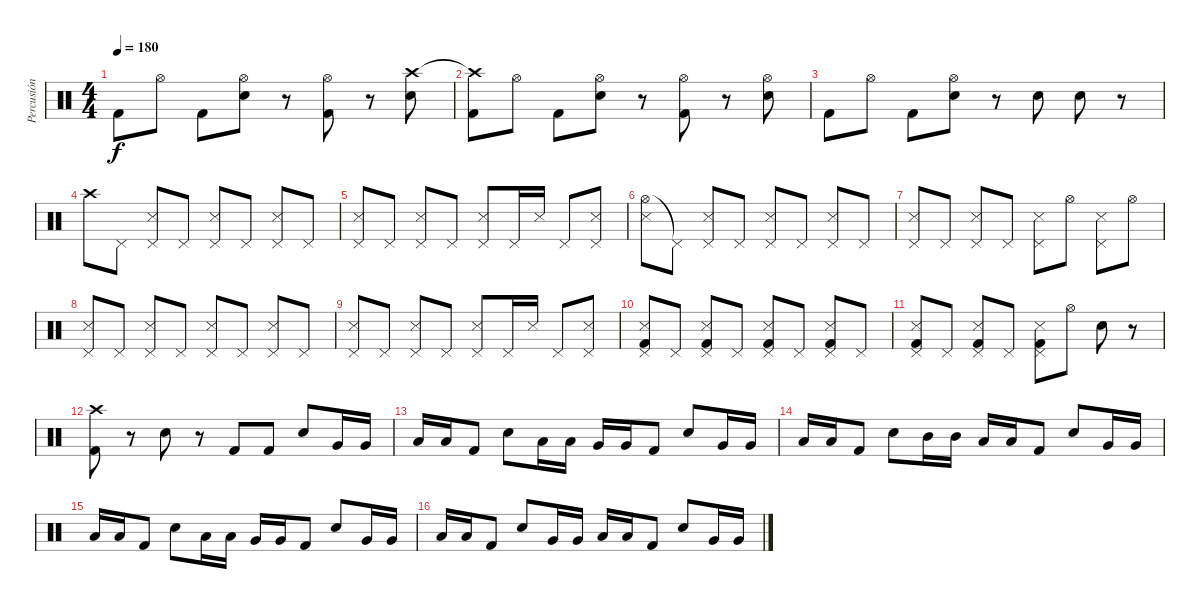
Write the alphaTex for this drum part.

\track ("Percusión" "Percusión") {instrument percussion}
\staff {score}
\articulation defaults
\ts (4 4)
\tempo 180
\clef neutral
\ks c "Kick (hit) 2".8{dy f} "Hi-Hat (open)".8 "Kick (hit) 2".8
("Hi-Hat (open)" "Electric Snare (hit)").8 r.8 ("Hi-Hat (open)" "Kick (hit) 2").8 r.8 ("Crash high (hit)" "Electric Snare (hit)").8 |
("Crash high (hit)"{t} "Kick (hit) 2").8 "Hi-Hat (open)".8 "Kick (hit) 2".8 ("Hi-Hat (open)" "Electric Snare (hit)").8 r.8 ("Hi-Hat (open)" "Kick (hit) 2").8 r.8 ("Hi-Hat (open)" "Electric Snare (hit)").8 |
"Kick (hit) 2".8 "Hi-Hat (open)".8 "Kick (hit) 2".8 ("Hi-Hat (open)" "Electric Snare (hit)").8 r.8 "Electric Snare (hit)".8 "Electric Snare (hit)".8 r.8 |
"Crash high (hit)".8 "Pedal Hi-Hat (hit)".8 ("Pedal Hi-Hat (hit)" "Snare (side stick) 3").8 "Pedal Hi-Hat (hit)".8 ("Pedal Hi-Hat (hit)" "Snare (side stick) 3").8 "Pedal Hi-Hat (hit)".8 ("Pedal Hi-Hat (hit)" "Snare (side stick) 3").8 "Pedal Hi-Hat (hit)".8 |
("Pedal Hi-Hat (hit)" "Snare (side stick) 3").8 "Pedal Hi-Hat (hit)".8 ("Pedal Hi-Hat (hit)" "Snare (side stick) 3").8 "Pedal Hi-Hat (hit)".8 ("Pedal Hi-Hat (hit)" "Snare (side stick) 3").8 "Pedal Hi-Hat (hit)".16 "Snare (side stick) 3".16 "Pedal Hi-Hat (hit)".8 ("Pedal Hi-Hat (hit)" "Snare (side stick) 3").8 |
("Hi-Hat (open)" "Snare (side stick) 3").8 "Pedal Hi-Hat (hit)"{t}.8 ("Pedal Hi-Hat (hit)" "Snare (side stick) 3").8 "Pedal Hi-Hat (hit)".8 ("Pedal Hi-Hat (hit)" "Snare (side stick) 3").8 "Pedal Hi-Hat (hit)".8 ("Pedal Hi-Hat (hit)" "Snare (side stick) 3").8 "Pedal Hi-Hat (hit)".8 |
("Pedal Hi-Hat (hit)" "Snare (side stick) 3").8 "Pedal Hi-Hat (hit)".8 ("Pedal Hi-Hat (hit)" "Snare (side stick) 3").8 "Pedal Hi-Hat (hit)".8 ("Pedal Hi-Hat (hit)" "Snare (side stick) 3").8 "Hi-Hat (open)".8 ("Pedal Hi-Hat (hit)" "Snare (side stick) 3").8 "Hi-Hat (open)".8 |
("Pedal Hi-Hat (hit)" "Snare (side stick) 3").8 "Pedal Hi-Hat (hit)".8 ("Pedal Hi-Hat (hit)" "Snare (side stick) 3").8 "Pedal Hi-Hat (hit)".8 ("Pedal Hi-Hat (hit)" "Snare (side stick) 3").8 "Pedal Hi-Hat (hit)".8 ("Pedal Hi-Hat (hit)" "Snare (side stick) 3").8 "Pedal Hi-Hat (hit)".8 |
("Pedal Hi-Hat (hit)" "Snare (side stick) 3").8 "Pedal Hi-Hat (hit)".8 ("Pedal Hi-Hat (hit)" "Snare (side stick) 3").8 "Pedal Hi-Hat (hit)".8 ("Pedal Hi-Hat (hit)" "Snare (side stick) 3").8 "Pedal Hi-Hat (hit)".16 "Snare (side stick) 3".16 "Pedal Hi-Hat (hit)".8 ("Pedal Hi-Hat (hit)" "Snare (side stick) 3").8 |
("Pedal Hi-Hat (hit)" "Snare (side stick) 3" "Kick (hit) 2").8 "Pedal Hi-Hat (hit)".8 ("Pedal Hi-Hat (hit)" "Snare (side stick) 3" "Kick (hit) 2").8 "Pedal Hi-Hat (hit)".8 ("Pedal Hi-Hat (hit)" "Snare (side stick) 3" "Kick (hit) 2").8 "Pedal Hi-Hat (hit)".8 ("Pedal Hi-Hat (hit)" "Snare (side stick) 3" "Kick (hit) 2").8 "Pedal Hi-Hat (hit)".8 |
("Pedal Hi-Hat (hit)" "Snare (side stick) 3" "Kick (hit) 2").8 "Pedal Hi-Hat (hit)".8 ("Pedal Hi-Hat (hit)" "Snare (side stick) 3" "Kick (hit) 2").8 "Pedal Hi-Hat (hit)".8 ("Pedal Hi-Hat (hit)" "Snare (side stick) 3" "Kick (hit) 2").8 "Hi-Hat (open)".8 "Electric Snare (hit)".8 r.8 |
("Crash high (hit)" "Kick (hit) 2").8 r.8 "Electric Snare (hit)".8 r.8 "Kick (hit) 2".8 "Kick (hit) 2".8 "Electric Snare (hit)".8 "Very Low Tom (hit)".16 "Very Low Tom (hit)".16 |
"Low Floor Tom (hit)".16 "Low Floor Tom (hit)".16 "Kick (hit) 2".8 "Electric Snare (hit)".8 "Low Tom (hit)".16 "Low Tom (hit)".16 "Very Low Tom (hit)".16 "Very Low Tom (hit)".16 "Kick (hit) 2".8 "Electric Snare (hit)".8 "Very Low Tom (hit)".16 "Very Low Tom (hit)".16 |
"Low Floor Tom (hit)".16 "Low Floor Tom (hit)".16 "Kick (hit) 2".8 "Electric Snare (hit)".8 "Mid Tom (hit)".16 "Mid Tom (hit)".16 "Low Tom (hit)".16 "Low Tom (hit)".16 "Kick (hit) 2".8 "Electric Snare (hit)".8 "Very Low Tom (hit)".16 "Very Low Tom (hit)".16 |
"Low Floor Tom (hit)".16 "Low Floor Tom (hit)".16 "Kick (hit) 2".8 "Electric Snare (hit)".8 "Low Tom (hit)".16 "Low Tom (hit)".16 "Very Low Tom (hit)".16 "Very Low Tom (hit)".16 "Kick (hit) 2".8 "Electric Snare (hit)".8 "Very Low Tom (hit)".16 "Very Low Tom (hit)".16 |
"Low Floor Tom (hit)".16 "Low Floor Tom (hit)".16 "Kick (hit) 2".8 "Electric Snare (hit)".8 "Very Low Tom (hit)".16 "Very Low Tom (hit)".16 "Low Floor Tom (hit)".16 "Low Floor Tom (hit)".16 "Kick (hit) 2".8 "Electric Snare (hit)".8 "Very Low Tom (hit)".16 "Very Low Tom (hit)".16
